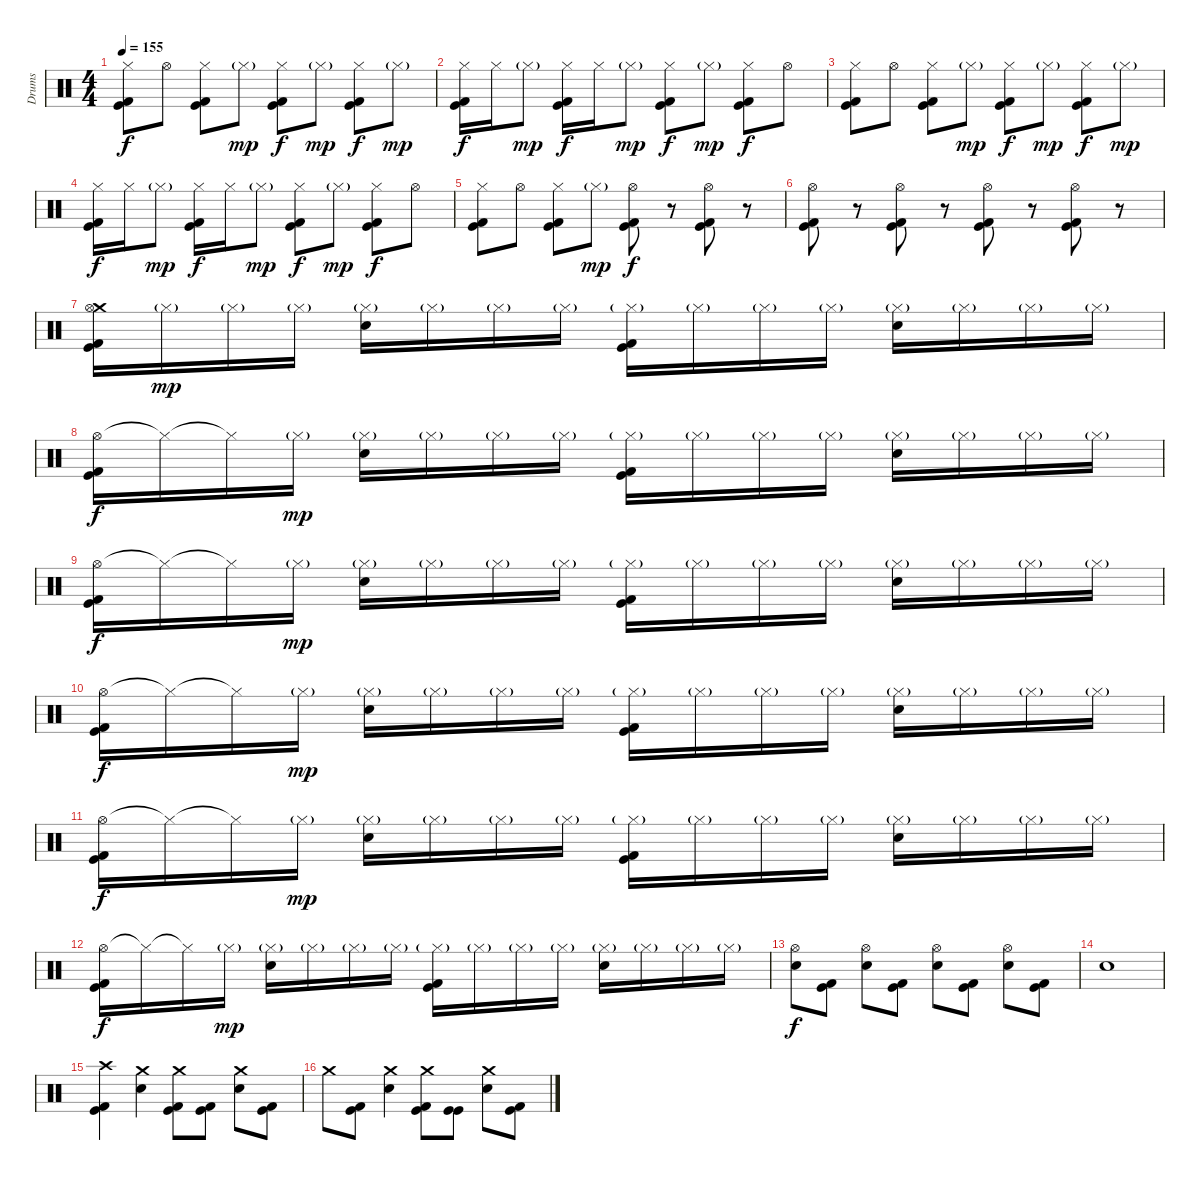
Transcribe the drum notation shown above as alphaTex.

\track ("Drums" "Drums") {instrument percussion}
\staff {score}
\articulation defaults
\ts (4 4)
\tempo 155
\clef neutral
\ks c
("Hi-Hat (closed)" "Kick (hit)" "Kick (hit) 2").8{dy f} "Hi-Hat (open)".8 ("Hi-Hat (closed)" "Kick (hit)" "Kick (hit) 2").8 "Hi-Hat (closed)"{g}.8{dy mp} ("Hi-Hat (closed)" "Kick (hit)" "Kick (hit) 2").8{dy f} "Hi-Hat (closed)"{g}.8{dy mp} ("Hi-Hat (closed)" "Kick (hit)" "Kick (hit) 2").8{dy f} "Hi-Hat (closed)"{g}.8{dy mp} |
("Hi-Hat (closed)" "Kick (hit)" "Kick (hit) 2").16{dy f} "Hi-Hat (closed)".16 "Hi-Hat (closed)"{g}.8{dy mp} ("Hi-Hat (closed)" "Kick (hit)" "Kick (hit) 2").16{dy f} "Hi-Hat (closed)".16 "Hi-Hat (closed)"{g}.8{dy mp} ("Hi-Hat (closed)" "Kick (hit)" "Kick (hit) 2").8{dy f} "Hi-Hat (closed)"{g}.8{dy mp} ("Hi-Hat (closed)" "Kick (hit)" "Kick (hit) 2").8{dy f} "Hi-Hat (open)".8 |
("Hi-Hat (closed)" "Kick (hit)" "Kick (hit) 2").8 "Hi-Hat (open)".8 ("Hi-Hat (closed)" "Kick (hit)" "Kick (hit) 2").8 "Hi-Hat (closed)"{g}.8{dy mp} ("Hi-Hat (closed)" "Kick (hit)" "Kick (hit) 2").8{dy f} "Hi-Hat (closed)"{g}.8{dy mp} ("Hi-Hat (closed)" "Kick (hit)" "Kick (hit) 2").8{dy f} "Hi-Hat (closed)"{g}.8{dy mp} |
("Hi-Hat (closed)" "Kick (hit)" "Kick (hit) 2").16{dy f} "Hi-Hat (closed)".16 "Hi-Hat (closed)"{g}.8{dy mp} ("Hi-Hat (closed)" "Kick (hit)" "Kick (hit) 2").16{dy f} "Hi-Hat (closed)".16 "Hi-Hat (closed)"{g}.8{dy mp} ("Hi-Hat (closed)" "Kick (hit)" "Kick (hit) 2").8{dy f} "Hi-Hat (closed)"{g}.8{dy mp} ("Hi-Hat (closed)" "Kick (hit)" "Kick (hit) 2").8{dy f} "Hi-Hat (open)".8 |
("Hi-Hat (closed)" "Kick (hit)" "Kick (hit) 2").8 "Hi-Hat (open)".8 ("Hi-Hat (closed)" "Kick (hit)" "Kick (hit) 2").8 "Hi-Hat (closed)"{g}.8{dy mp} ("Hi-Hat (open)" "Kick (hit)" "Kick (hit) 2").8{dy f} r.8 ("Hi-Hat (open)" "Kick (hit)" "Kick (hit) 2").8 r.8 |
("Hi-Hat (open)" "Kick (hit)" "Kick (hit) 2").8 r.8 ("Hi-Hat (open)" "Kick (hit)" "Kick (hit) 2").8 r.8 ("Hi-Hat (open)" "Kick (hit)" "Kick (hit) 2").8 r.8 ("Hi-Hat (open)" "Kick (hit)" "Kick (hit) 2").8 r.8 |
("Crash medium (hit)" "Hi-Hat (open)" "Kick (hit)" "Kick (hit) 2").16 "Hi-Hat (closed)"{g}.16{dy mp} "Hi-Hat (closed)"{g}.16 "Hi-Hat (closed)"{g}.16 ("Hi-Hat (closed)"{g} "Electric Snare (hit)").16 "Hi-Hat (closed)"{g}.16 "Hi-Hat (closed)"{g}.16 "Hi-Hat (closed)"{g}.16 ("Hi-Hat (closed)"{g} "Kick (hit)" "Kick (hit) 2").16 "Hi-Hat (closed)"{g}.16 "Hi-Hat (closed)"{g}.16 "Hi-Hat (closed)"{g}.16 ("Hi-Hat (closed)"{g} "Electric Snare (hit)").16 "Hi-Hat (closed)"{g}.16 "Hi-Hat (closed)"{g}.16 "Hi-Hat (closed)"{g}.16 |
("Hi-Hat (open)" "Kick (hit)" "Kick (hit) 2").16{dy f} "Hi-Hat (closed)"{t}.16 "Hi-Hat (closed)"{t}.16 "Hi-Hat (closed)"{g}.16{dy mp} ("Hi-Hat (closed)"{g} "Electric Snare (hit)").16 "Hi-Hat (closed)"{g}.16 "Hi-Hat (closed)"{g}.16 "Hi-Hat (closed)"{g}.16 ("Hi-Hat (closed)"{g} "Kick (hit)" "Kick (hit) 2").16 "Hi-Hat (closed)"{g}.16 "Hi-Hat (closed)"{g}.16 "Hi-Hat (closed)"{g}.16 ("Hi-Hat (closed)"{g} "Electric Snare (hit)").16 "Hi-Hat (closed)"{g}.16 "Hi-Hat (closed)"{g}.16 "Hi-Hat (closed)"{g}.16 |
("Hi-Hat (open)" "Kick (hit)" "Kick (hit) 2").16{dy f} "Hi-Hat (closed)"{t}.16 "Hi-Hat (closed)"{t}.16 "Hi-Hat (closed)"{g}.16{dy mp} ("Hi-Hat (closed)"{g} "Electric Snare (hit)").16 "Hi-Hat (closed)"{g}.16 "Hi-Hat (closed)"{g}.16 "Hi-Hat (closed)"{g}.16 ("Hi-Hat (closed)"{g} "Kick (hit)" "Kick (hit) 2").16 "Hi-Hat (closed)"{g}.16 "Hi-Hat (closed)"{g}.16 "Hi-Hat (closed)"{g}.16 ("Hi-Hat (closed)"{g} "Electric Snare (hit)").16 "Hi-Hat (closed)"{g}.16 "Hi-Hat (closed)"{g}.16 "Hi-Hat (closed)"{g}.16 |
("Hi-Hat (open)" "Kick (hit)" "Kick (hit) 2").16{dy f} "Hi-Hat (closed)"{t}.16 "Hi-Hat (closed)"{t}.16 "Hi-Hat (closed)"{g}.16{dy mp} ("Hi-Hat (closed)"{g} "Electric Snare (hit)").16 "Hi-Hat (closed)"{g}.16 "Hi-Hat (closed)"{g}.16 "Hi-Hat (closed)"{g}.16 ("Hi-Hat (closed)"{g} "Kick (hit)" "Kick (hit) 2").16 "Hi-Hat (closed)"{g}.16 "Hi-Hat (closed)"{g}.16 "Hi-Hat (closed)"{g}.16 ("Hi-Hat (closed)"{g} "Electric Snare (hit)").16 "Hi-Hat (closed)"{g}.16 "Hi-Hat (closed)"{g}.16 "Hi-Hat (closed)"{g}.16 |
("Hi-Hat (open)" "Kick (hit)" "Kick (hit) 2").16{dy f} "Hi-Hat (closed)"{t}.16 "Hi-Hat (closed)"{t}.16 "Hi-Hat (closed)"{g}.16{dy mp} ("Hi-Hat (closed)"{g} "Electric Snare (hit)").16 "Hi-Hat (closed)"{g}.16 "Hi-Hat (closed)"{g}.16 "Hi-Hat (closed)"{g}.16 ("Hi-Hat (closed)"{g} "Kick (hit)" "Kick (hit) 2").16 "Hi-Hat (closed)"{g}.16 "Hi-Hat (closed)"{g}.16 "Hi-Hat (closed)"{g}.16 ("Hi-Hat (closed)"{g} "Electric Snare (hit)").16 "Hi-Hat (closed)"{g}.16 "Hi-Hat (closed)"{g}.16 "Hi-Hat (closed)"{g}.16 |
("Hi-Hat (open)" "Kick (hit)" "Kick (hit) 2").16{dy f} "Hi-Hat (closed)"{t}.16 "Hi-Hat (closed)"{t}.16 "Hi-Hat (closed)"{g}.16{dy mp} ("Hi-Hat (closed)"{g} "Electric Snare (hit)").16 "Hi-Hat (closed)"{g}.16 "Hi-Hat (closed)"{g}.16 "Hi-Hat (closed)"{g}.16 ("Hi-Hat (closed)"{g} "Kick (hit)" "Kick (hit) 2").16 "Hi-Hat (closed)"{g}.16 "Hi-Hat (closed)"{g}.16 "Hi-Hat (closed)"{g}.16 ("Hi-Hat (closed)"{g} "Electric Snare (hit)").16 "Hi-Hat (closed)"{g}.16 "Hi-Hat (closed)"{g}.16 "Hi-Hat (closed)"{g}.16 |
("Hi-Hat (open)" "Electric Snare (hit)").8{dy f} ("Kick (hit)" "Kick (hit) 2").8 ("Hi-Hat (open)" "Electric Snare (hit)").8 ("Kick (hit)" "Kick (hit) 2").8 ("Hi-Hat (open)" "Electric Snare (hit)").8 ("Kick (hit)" "Kick (hit) 2").8 ("Hi-Hat (open)" "Electric Snare (hit)").8 ("Kick (hit)" "Kick (hit) 2").8 |
"Electric Snare (hit)".1 |
("Crash high (hit)" "Kick (hit)" "Kick (hit) 2").4 ("Crash medium (hit)" "Electric Snare (hit)").4 ("Crash medium (hit)" "Kick (hit)" "Kick (hit) 2").8 ("Kick (hit)" "Kick (hit) 2").8 ("Crash medium (hit)" "Electric Snare (hit)").8 ("Kick (hit)" "Kick (hit) 2").8 |
"Crash medium (hit)".8 ("Kick (hit)" "Kick (hit) 2").8 ("Crash medium (hit)" "Electric Snare (hit)").4 ("Crash medium (hit)" "Kick (hit)" "Kick (hit) 2").8 ("Kick (hit)" "Kick (hit)").8 ("Crash medium (hit)" "Electric Snare (hit)").8 ("Kick (hit)" "Kick (hit) 2").8
